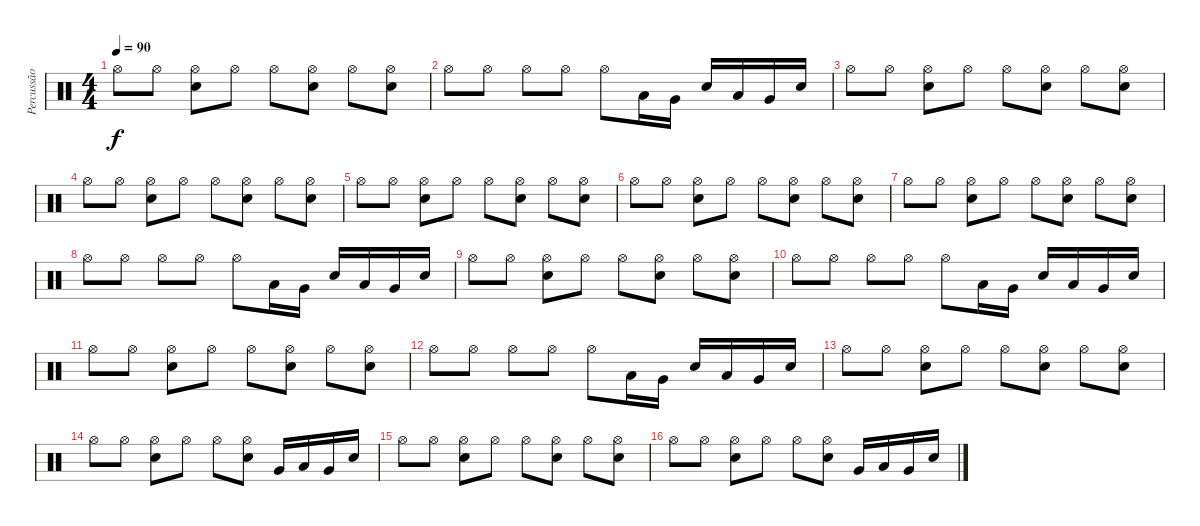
\track ("Percussão" "Percussão") {instrument percussion}
\staff {score}
\articulation defaults
\ts (4 4)
\tempo 90
\clef neutral
\ks c "Hi-Hat (open)".8{dy f} "Hi-Hat (open)".8
("Electric Snare (hit)" "Hi-Hat (open)").8 "Hi-Hat (open)".8 "Hi-Hat (open)".8 ("Electric Snare (hit)" "Hi-Hat (open)").8 "Hi-Hat (open)".8 ("Electric Snare (hit)" "Hi-Hat (open)").8 |
"Hi-Hat (open)".8 "Hi-Hat (open)".8 "Hi-Hat (open)".8 "Hi-Hat (open)".8 "Hi-Hat (open)".8 "Low Floor Tom (hit)".16 "Very Low Tom (hit)".16 "Electric Snare (hit)".16 "Low Floor Tom (hit)".16 "Very Low Tom (hit)".16 "Electric Snare (hit)".16 |
"Hi-Hat (open)".8 "Hi-Hat (open)".8 ("Electric Snare (hit)" "Hi-Hat (open)").8 "Hi-Hat (open)".8 "Hi-Hat (open)".8 ("Electric Snare (hit)" "Hi-Hat (open)").8 "Hi-Hat (open)".8 ("Electric Snare (hit)" "Hi-Hat (open)").8 |
"Hi-Hat (open)".8 "Hi-Hat (open)".8 ("Electric Snare (hit)" "Hi-Hat (open)").8 "Hi-Hat (open)".8 "Hi-Hat (open)".8 ("Electric Snare (hit)" "Hi-Hat (open)").8 "Hi-Hat (open)".8 ("Electric Snare (hit)" "Hi-Hat (open)").8 |
"Hi-Hat (open)".8 "Hi-Hat (open)".8 ("Electric Snare (hit)" "Hi-Hat (open)").8 "Hi-Hat (open)".8 "Hi-Hat (open)".8 ("Electric Snare (hit)" "Hi-Hat (open)").8 "Hi-Hat (open)".8 ("Electric Snare (hit)" "Hi-Hat (open)").8 |
"Hi-Hat (open)".8 "Hi-Hat (open)".8 ("Electric Snare (hit)" "Hi-Hat (open)").8 "Hi-Hat (open)".8 "Hi-Hat (open)".8 ("Electric Snare (hit)" "Hi-Hat (open)").8 "Hi-Hat (open)".8 ("Electric Snare (hit)" "Hi-Hat (open)").8 |
"Hi-Hat (open)".8 "Hi-Hat (open)".8 ("Electric Snare (hit)" "Hi-Hat (open)").8 "Hi-Hat (open)".8 "Hi-Hat (open)".8 ("Electric Snare (hit)" "Hi-Hat (open)").8 "Hi-Hat (open)".8 ("Electric Snare (hit)" "Hi-Hat (open)").8 |
"Hi-Hat (open)".8 "Hi-Hat (open)".8 "Hi-Hat (open)".8 "Hi-Hat (open)".8 "Hi-Hat (open)".8 "Low Floor Tom (hit)".16 "Very Low Tom (hit)".16 "Electric Snare (hit)".16 "Low Floor Tom (hit)".16 "Very Low Tom (hit)".16 "Electric Snare (hit)".16 |
"Hi-Hat (open)".8 "Hi-Hat (open)".8 ("Electric Snare (hit)" "Hi-Hat (open)").8 "Hi-Hat (open)".8 "Hi-Hat (open)".8 ("Electric Snare (hit)" "Hi-Hat (open)").8 "Hi-Hat (open)".8 ("Electric Snare (hit)" "Hi-Hat (open)").8 |
"Hi-Hat (open)".8 "Hi-Hat (open)".8 "Hi-Hat (open)".8 "Hi-Hat (open)".8 "Hi-Hat (open)".8 "Low Floor Tom (hit)".16 "Very Low Tom (hit)".16 "Electric Snare (hit)".16 "Low Floor Tom (hit)".16 "Very Low Tom (hit)".16 "Electric Snare (hit)".16 |
"Hi-Hat (open)".8 "Hi-Hat (open)".8 ("Electric Snare (hit)" "Hi-Hat (open)").8 "Hi-Hat (open)".8 "Hi-Hat (open)".8 ("Electric Snare (hit)" "Hi-Hat (open)").8 "Hi-Hat (open)".8 ("Electric Snare (hit)" "Hi-Hat (open)").8 |
"Hi-Hat (open)".8 "Hi-Hat (open)".8 "Hi-Hat (open)".8 "Hi-Hat (open)".8 "Hi-Hat (open)".8 "Low Floor Tom (hit)".16 "Very Low Tom (hit)".16 "Electric Snare (hit)".16 "Low Floor Tom (hit)".16 "Very Low Tom (hit)".16 "Electric Snare (hit)".16 |
"Hi-Hat (open)".8 "Hi-Hat (open)".8 ("Electric Snare (hit)" "Hi-Hat (open)").8 "Hi-Hat (open)".8 "Hi-Hat (open)".8 ("Electric Snare (hit)" "Hi-Hat (open)").8 "Hi-Hat (open)".8 ("Electric Snare (hit)" "Hi-Hat (open)").8 |
"Hi-Hat (open)".8 "Hi-Hat (open)".8 ("Electric Snare (hit)" "Hi-Hat (open)").8 "Hi-Hat (open)".8 "Hi-Hat (open)".8 ("Electric Snare (hit)" "Hi-Hat (open)").8 "Very Low Tom (hit)".16 "Low Floor Tom (hit)".16 "Very Low Tom (hit)".16 "Electric Snare (hit)".16 |
"Hi-Hat (open)".8 "Hi-Hat (open)".8 ("Electric Snare (hit)" "Hi-Hat (open)").8 "Hi-Hat (open)".8 "Hi-Hat (open)".8 ("Electric Snare (hit)" "Hi-Hat (open)").8 "Hi-Hat (open)".8 ("Electric Snare (hit)" "Hi-Hat (open)").8 |
"Hi-Hat (open)".8 "Hi-Hat (open)".8 ("Electric Snare (hit)" "Hi-Hat (open)").8 "Hi-Hat (open)".8 "Hi-Hat (open)".8 ("Electric Snare (hit)" "Hi-Hat (open)").8 "Very Low Tom (hit)".16 "Low Floor Tom (hit)".16 "Very Low Tom (hit)".16 "Electric Snare (hit)".16
